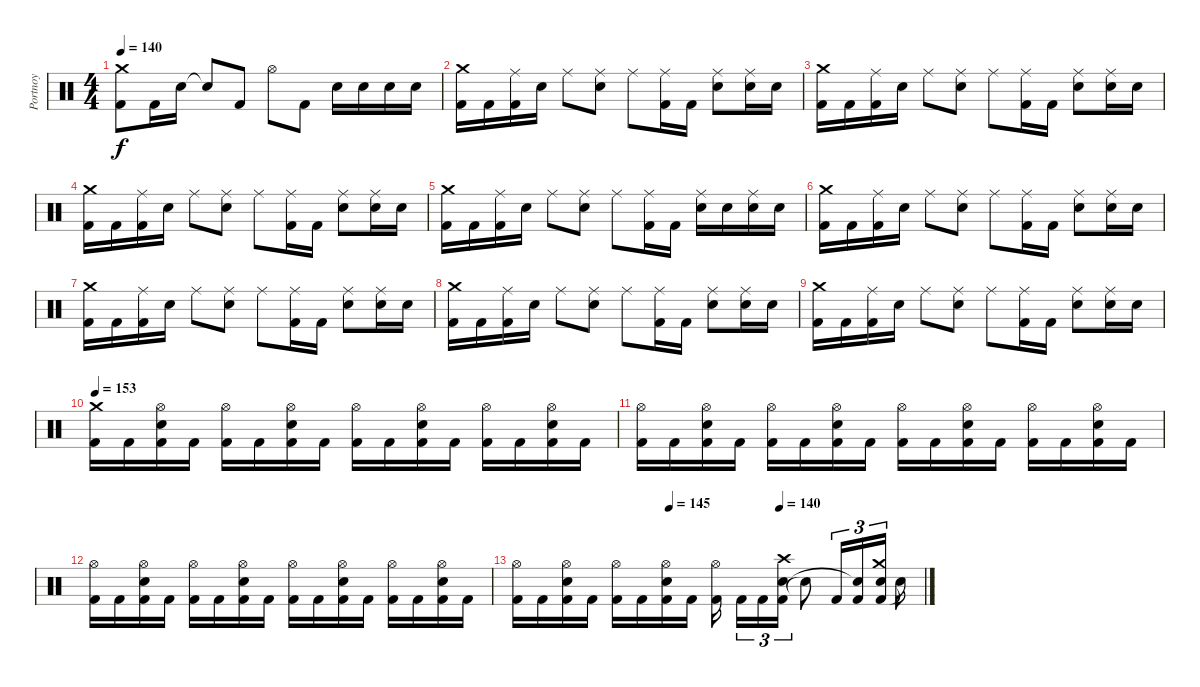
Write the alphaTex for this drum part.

\track ("Portnoy" "Portnoy") {instrument percussion}
\staff {score}
\articulation defaults
\ts (4 4)
\tempo 140
\clef neutral
\ks c
("Kick (hit) 2" "Crash medium (hit)").8{dy f} "Kick (hit) 2".16 "Electric Snare (hit)".16 "Snare (hit)"{t}.8 "Kick (hit) 2".8 "Hi-Hat (open)".8 "Kick (hit) 2".8 "Electric Snare (hit)".16 "Electric Snare (hit)".16 "Electric Snare (hit)".16 "Electric Snare (hit)".16 |
("Kick (hit) 2" "Crash medium (hit)").16 "Kick (hit) 2".16 ("Kick (hit) 2" "Ride (middle)").16 "Electric Snare (hit)".16 "Ride (middle)".8 ("Electric Snare (hit)" "Ride (middle)").8 "Ride (middle)".8 ("Kick (hit) 2" "Ride (middle)").16 "Kick (hit) 2".16 ("Electric Snare (hit)" "Ride (middle)").8 ("Electric Snare (hit)" "Ride (middle)").16 "Electric Snare (hit)".16 |
("Kick (hit) 2" "Crash medium (hit)").16 "Kick (hit) 2".16 ("Kick (hit) 2" "Ride (middle)").16 "Electric Snare (hit)".16 "Ride (middle)".8 ("Electric Snare (hit)" "Ride (middle)").8 "Ride (middle)".8 ("Kick (hit) 2" "Ride (middle)").16 "Kick (hit) 2".16 ("Electric Snare (hit)" "Ride (middle)").8 ("Electric Snare (hit)" "Ride (middle)").16 "Electric Snare (hit)".16 |
("Kick (hit) 2" "Crash medium (hit)").16 "Kick (hit) 2".16 ("Kick (hit) 2" "Ride (middle)").16 "Electric Snare (hit)".16 "Ride (middle)".8 ("Electric Snare (hit)" "Ride (middle)").8 "Ride (middle)".8 ("Kick (hit) 2" "Ride (middle)").16 "Kick (hit) 2".16 ("Electric Snare (hit)" "Ride (middle)").8 ("Electric Snare (hit)" "Ride (middle)").16 "Electric Snare (hit)".16 |
("Kick (hit) 2" "Crash medium (hit)").16 "Kick (hit) 2".16 ("Kick (hit) 2" "Ride (middle)").16 "Electric Snare (hit)".16 "Ride (middle)".8 ("Electric Snare (hit)" "Ride (middle)").8 "Ride (middle)".8 ("Kick (hit) 2" "Ride (middle)").16 "Kick (hit) 2".16 ("Electric Snare (hit)" "Ride (middle)").16 "Electric Snare (hit)".16 ("Electric Snare (hit)" "Ride (middle)").16 "Electric Snare (hit)".16 |
("Kick (hit) 2" "Crash medium (hit)").16 "Kick (hit) 2".16 ("Kick (hit) 2" "Ride (middle)").16 "Electric Snare (hit)".16 "Ride (middle)".8 ("Electric Snare (hit)" "Ride (middle)").8 "Ride (middle)".8 ("Kick (hit) 2" "Ride (middle)").16 "Kick (hit) 2".16 ("Electric Snare (hit)" "Ride (middle)").8 ("Electric Snare (hit)" "Ride (middle)").16 "Electric Snare (hit)".16 |
("Kick (hit) 2" "Crash medium (hit)").16 "Kick (hit) 2".16 ("Kick (hit) 2" "Ride (middle)").16 "Electric Snare (hit)".16 "Ride (middle)".8 ("Electric Snare (hit)" "Ride (middle)").8 "Ride (middle)".8 ("Kick (hit) 2" "Ride (middle)").16 "Kick (hit) 2".16 ("Electric Snare (hit)" "Ride (middle)").8 ("Electric Snare (hit)" "Ride (middle)").16 "Electric Snare (hit)".16 |
("Kick (hit) 2" "Crash medium (hit)").16 "Kick (hit) 2".16 ("Kick (hit) 2" "Ride (middle)").16 "Electric Snare (hit)".16 "Ride (middle)".8 ("Electric Snare (hit)" "Ride (middle)").8 "Ride (middle)".8 ("Kick (hit) 2" "Ride (middle)").16 "Kick (hit) 2".16 ("Electric Snare (hit)" "Ride (middle)").8 ("Electric Snare (hit)" "Ride (middle)").16 "Electric Snare (hit)".16 |
("Kick (hit) 2" "Crash medium (hit)").16 "Kick (hit) 2".16 ("Kick (hit) 2" "Ride (middle)").16 "Electric Snare (hit)".16 "Ride (middle)".8 ("Electric Snare (hit)" "Ride (middle)").8 "Ride (middle)".8 ("Kick (hit) 2" "Ride (middle)").16 "Kick (hit) 2".16 ("Electric Snare (hit)" "Ride (middle)").8 ("Electric Snare (hit)" "Ride (middle)").16 "Electric Snare (hit)".16 |
\tempo 153
("Kick (hit) 2" "Crash medium (hit)").16 "Kick (hit) 2".16 ("Kick (hit) 2" "Electric Snare (hit)" "Hi-Hat (open)").16 "Kick (hit) 2".16 ("Kick (hit) 2" "Hi-Hat (open)").16 "Kick (hit) 2".16 ("Kick (hit) 2" "Electric Snare (hit)" "Hi-Hat (open)").16 "Kick (hit) 2".16 ("Kick (hit) 2" "Hi-Hat (open)").16 "Kick (hit) 2".16 ("Kick (hit) 2" "Electric Snare (hit)" "Hi-Hat (open)").16 "Kick (hit) 2".16 ("Kick (hit) 2" "Hi-Hat (open)").16 "Kick (hit) 2".16 ("Kick (hit) 2" "Electric Snare (hit)" "Hi-Hat (open)").16 "Kick (hit) 2".16 |
("Kick (hit) 2" "Hi-Hat (open)").16 "Kick (hit) 2".16 ("Kick (hit) 2" "Electric Snare (hit)" "Hi-Hat (open)").16 "Kick (hit) 2".16 ("Kick (hit) 2" "Hi-Hat (open)").16 "Kick (hit) 2".16 ("Kick (hit) 2" "Electric Snare (hit)" "Hi-Hat (open)").16 "Kick (hit) 2".16 ("Kick (hit) 2" "Hi-Hat (open)").16 "Kick (hit) 2".16 ("Kick (hit) 2" "Electric Snare (hit)" "Hi-Hat (open)").16 "Kick (hit) 2".16 ("Kick (hit) 2" "Hi-Hat (open)").16 "Kick (hit) 2".16 ("Kick (hit) 2" "Electric Snare (hit)" "Hi-Hat (open)").16 "Kick (hit) 2".16 |
("Kick (hit) 2" "Hi-Hat (open)").16 "Kick (hit) 2".16 ("Kick (hit) 2" "Electric Snare (hit)" "Hi-Hat (open)").16 "Kick (hit) 2".16 ("Kick (hit) 2" "Hi-Hat (open)").16 "Kick (hit) 2".16 ("Kick (hit) 2" "Electric Snare (hit)" "Hi-Hat (open)").16 "Kick (hit) 2".16 ("Kick (hit) 2" "Hi-Hat (open)").16 "Kick (hit) 2".16 ("Kick (hit) 2" "Electric Snare (hit)" "Hi-Hat (open)").16 "Kick (hit) 2".16 ("Kick (hit) 2" "Hi-Hat (open)").16 "Kick (hit) 2".16 ("Kick (hit) 2" "Electric Snare (hit)" "Hi-Hat (open)").16 "Kick (hit) 2".16 |
\tempo (145 0.375)
\tempo (140 0.6458333333333334)
("Kick (hit) 2" "Hi-Hat (open)").16 "Kick (hit) 2".16 ("Kick (hit) 2" "Electric Snare (hit)" "Hi-Hat (open)").16 "Kick (hit) 2".16 ("Kick (hit) 2" "Hi-Hat (open)").16 "Kick (hit) 2".16 ("Kick (hit) 2" "Electric Snare (hit)" "Hi-Hat (open)").16 "Kick (hit) 2".16 ("Kick (hit) 2" "Hi-Hat (open)").16 "Kick (hit) 2".16{tu (3 2)} "Kick (hit) 2".16{tu (3 2)} ("Kick (hit) 2" "Electric Snare (hit)" "Crash high (hit)").16{tu (3 2)} "Snare (hit)"{t}.8 "Kick (hit) 2".16{tu (3 2)} ("Kick (hit) 2" "Snare (hit)"{t}).16{tu (3 2)} ("Kick (hit) 2" "Electric Snare (hit)" "Crash medium (hit)").16{tu (3 2)} "Snare (hit)"{t}.16
